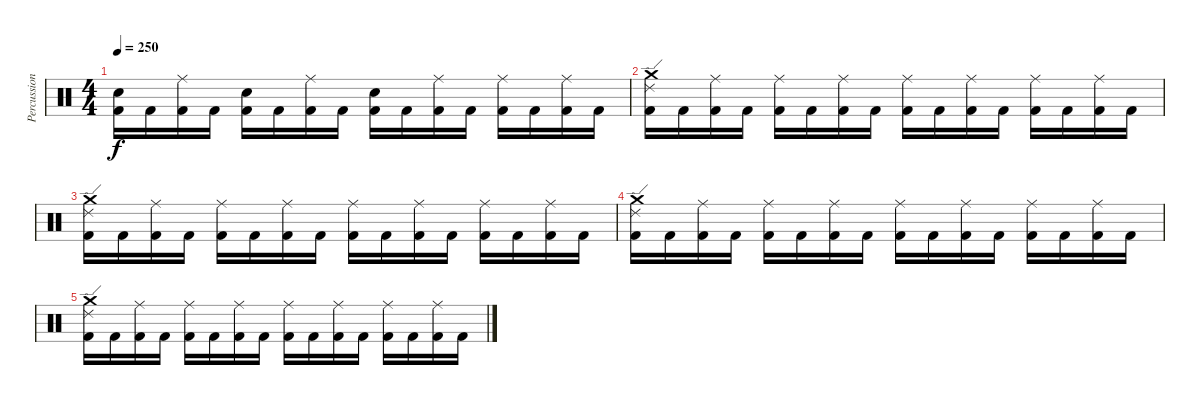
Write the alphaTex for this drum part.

\track ("Percussion" "Percussion") {instrument percussion}
\staff {score}
\articulation defaults
\ts (4 4)
\tempo 250
\clef neutral
\ks c
("Electric Snare (hit)" "Kick (hit) 2").16{dy f} "Kick (hit) 2".16 ("Ride (middle)" "Kick (hit) 2").16 "Kick (hit) 2".16 ("Electric Snare (hit)" "Kick (hit) 2").16 "Kick (hit) 2".16 ("Ride (middle)" "Kick (hit) 2").16 "Kick (hit) 2".16 ("Electric Snare (hit)" "Kick (hit) 2").16 "Kick (hit) 2".16 ("Ride (middle)" "Kick (hit) 2").16 "Kick (hit) 2".16 ("Ride (middle)" "Kick (hit) 2").16 "Kick (hit) 2".16 ("Ride (middle)" "Kick (hit) 2").16 "Kick (hit) 2".16 |
("Ride (edge) 2" "Crash medium (hit)" "Kick (hit) 2").16 "Kick (hit) 2".16 ("Ride (middle)" "Kick (hit) 2").16 "Kick (hit) 2".16 ("Ride (middle)" "Kick (hit) 2").16 "Kick (hit) 2".16 ("Ride (middle)" "Kick (hit) 2").16 "Kick (hit) 2".16 ("Ride (middle)" "Kick (hit) 2").16 "Kick (hit) 2".16 ("Ride (middle)" "Kick (hit) 2").16 "Kick (hit) 2".16 ("Ride (middle)" "Kick (hit) 2").16 "Kick (hit) 2".16 ("Ride (middle)" "Kick (hit) 2").16 "Kick (hit) 2".16 |
("Ride (edge) 2" "Crash medium (hit)" "Kick (hit) 2").16 "Kick (hit) 2".16 ("Ride (middle)" "Kick (hit) 2").16 "Kick (hit) 2".16 ("Ride (middle)" "Kick (hit) 2").16 "Kick (hit) 2".16 ("Ride (middle)" "Kick (hit) 2").16 "Kick (hit) 2".16 ("Ride (middle)" "Kick (hit) 2").16 "Kick (hit) 2".16 ("Ride (middle)" "Kick (hit) 2").16 "Kick (hit) 2".16 ("Ride (middle)" "Kick (hit) 2").16 "Kick (hit) 2".16 ("Ride (middle)" "Kick (hit) 2").16 "Kick (hit) 2".16 |
("Ride (edge) 2" "Crash medium (hit)" "Kick (hit) 2").16 "Kick (hit) 2".16 ("Ride (middle)" "Kick (hit) 2").16 "Kick (hit) 2".16 ("Ride (middle)" "Kick (hit) 2").16 "Kick (hit) 2".16 ("Ride (middle)" "Kick (hit) 2").16 "Kick (hit) 2".16 ("Ride (middle)" "Kick (hit) 2").16 "Kick (hit) 2".16 ("Ride (middle)" "Kick (hit) 2").16 "Kick (hit) 2".16 ("Ride (middle)" "Kick (hit) 2").16 "Kick (hit) 2".16 ("Ride (middle)" "Kick (hit) 2").16 "Kick (hit) 2".16 |
("Ride (edge) 2" "Crash medium (hit)" "Kick (hit) 2").16 "Kick (hit) 2".16 ("Ride (middle)" "Kick (hit) 2").16 "Kick (hit) 2".16 ("Ride (middle)" "Kick (hit) 2").16 "Kick (hit) 2".16 ("Ride (middle)" "Kick (hit) 2").16 "Kick (hit) 2".16 ("Ride (middle)" "Kick (hit) 2").16 "Kick (hit) 2".16 ("Ride (middle)" "Kick (hit) 2").16 "Kick (hit) 2".16 ("Ride (middle)" "Kick (hit) 2").16 "Kick (hit) 2".16 ("Ride (middle)" "Kick (hit) 2").16 "Kick (hit) 2".16
